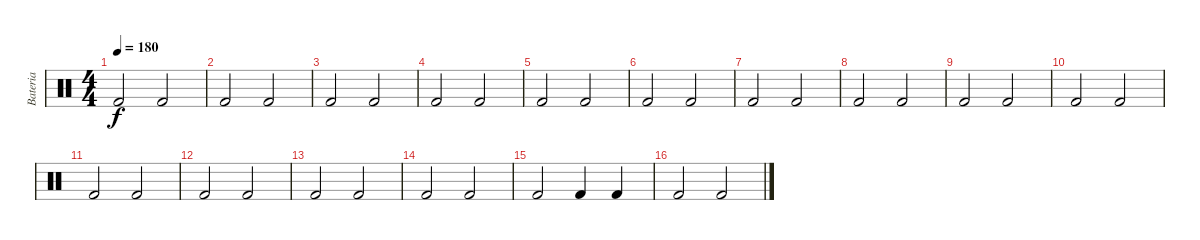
\track ("Bateria" "Bateria") {instrument percussion}
\staff {score}
\articulation defaults
\ts (4 4)
\tempo 180
\clef neutral
\ks c "Kick (hit) 2".2{dy f} "Kick (hit) 2".2
|
"Kick (hit) 2".2 "Kick (hit) 2".2 |
"Kick (hit) 2".2 "Kick (hit) 2".2 |
"Kick (hit) 2".2 "Kick (hit) 2".2 |
"Kick (hit) 2".2 "Kick (hit) 2".2 |
"Kick (hit) 2".2 "Kick (hit) 2".2 |
"Kick (hit) 2".2 "Kick (hit) 2".2 |
"Kick (hit) 2".2 "Kick (hit) 2".2 |
"Kick (hit) 2".2 "Kick (hit) 2".2 |
"Kick (hit) 2".2 "Kick (hit) 2".2 |
"Kick (hit) 2".2 "Kick (hit) 2".2 |
"Kick (hit) 2".2 "Kick (hit) 2".2 |
"Kick (hit) 2".2 "Kick (hit) 2".2 |
"Kick (hit) 2".2 "Kick (hit) 2".2 |
"Kick (hit) 2".2 "Kick (hit) 2".4 "Kick (hit) 2".4 |
"Kick (hit) 2".2 "Kick (hit) 2".2
